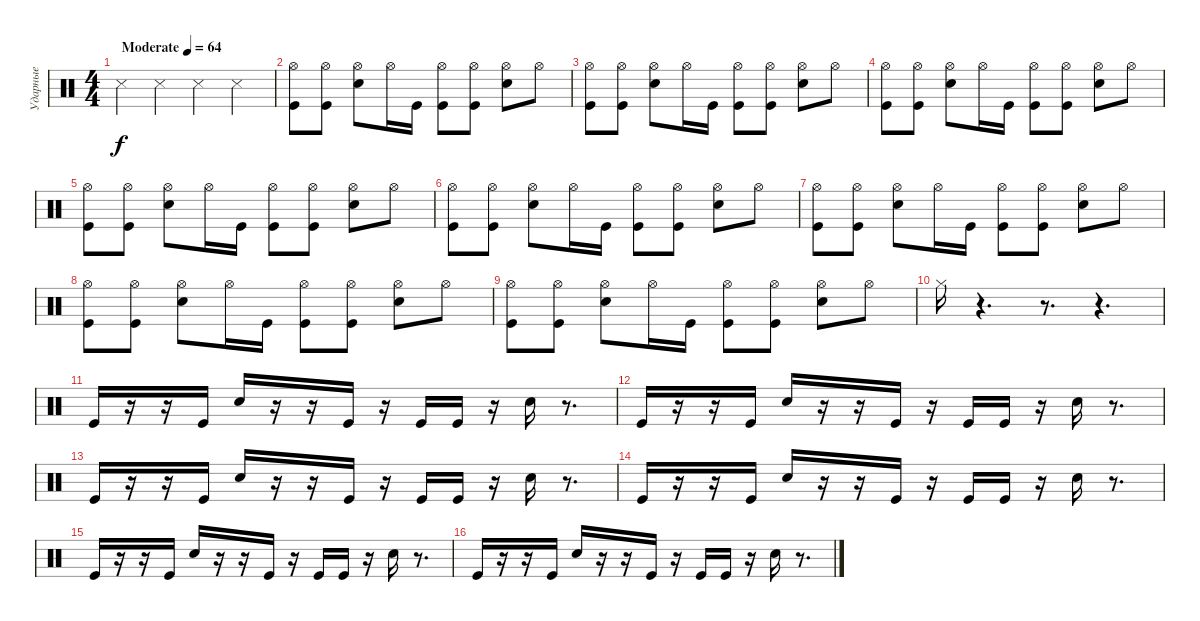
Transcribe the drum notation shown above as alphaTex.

\track ("Ударные" "Ударные") {instrument percussion}
\staff {score}
\articulation defaults
\ts (4 4)
\tempo (64 "Moderate")
\clef neutral
\ks c "Snare (side stick) 3".4{dy f} "Snare (side stick) 3".4 "Snare (side stick) 3".4 "Snare (side stick) 3".4
|
("Hi-Hat (open)" "Kick (hit)").8 ("Hi-Hat (open)" "Kick (hit)").8 ("Snare (hit) 2" "Hi-Hat (open)").8 "Hi-Hat (open)".16 "Kick (hit)".16 ("Hi-Hat (open)" "Kick (hit)").8 ("Hi-Hat (open)" "Kick (hit)").8 ("Hi-Hat (open)" "Snare (hit) 2").8 "Hi-Hat (open)".8 |
("Hi-Hat (open)" "Kick (hit)").8 ("Hi-Hat (open)" "Kick (hit)").8 ("Snare (hit) 2" "Hi-Hat (open)").8 "Hi-Hat (open)".16 "Kick (hit)".16 ("Hi-Hat (open)" "Kick (hit)").8 ("Hi-Hat (open)" "Kick (hit)").8 ("Hi-Hat (open)" "Snare (hit) 2").8 "Hi-Hat (open)".8 |
("Hi-Hat (open)" "Kick (hit)").8 ("Hi-Hat (open)" "Kick (hit)").8 ("Snare (hit) 2" "Hi-Hat (open)").8 "Hi-Hat (open)".16 "Kick (hit)".16 ("Hi-Hat (open)" "Kick (hit)").8 ("Hi-Hat (open)" "Kick (hit)").8 ("Hi-Hat (open)" "Snare (hit) 2").8 "Hi-Hat (open)".8 |
("Hi-Hat (open)" "Kick (hit)").8 ("Hi-Hat (open)" "Kick (hit)").8 ("Snare (hit) 2" "Hi-Hat (open)").8 "Hi-Hat (open)".16 "Kick (hit)".16 ("Hi-Hat (open)" "Kick (hit)").8 ("Hi-Hat (open)" "Kick (hit)").8 ("Hi-Hat (open)" "Snare (hit) 2").8 "Hi-Hat (open)".8 |
("Hi-Hat (open)" "Kick (hit)").8 ("Hi-Hat (open)" "Kick (hit)").8 ("Snare (hit) 2" "Hi-Hat (open)").8 "Hi-Hat (open)".16 "Kick (hit)".16 ("Hi-Hat (open)" "Kick (hit)").8 ("Hi-Hat (open)" "Kick (hit)").8 ("Hi-Hat (open)" "Snare (hit) 2").8 "Hi-Hat (open)".8 |
("Hi-Hat (open)" "Kick (hit)").8 ("Hi-Hat (open)" "Kick (hit)").8 ("Snare (hit) 2" "Hi-Hat (open)").8 "Hi-Hat (open)".16 "Kick (hit)".16 ("Hi-Hat (open)" "Kick (hit)").8 ("Hi-Hat (open)" "Kick (hit)").8 ("Hi-Hat (open)" "Snare (hit) 2").8 "Hi-Hat (open)".8 |
("Hi-Hat (open)" "Kick (hit)").8 ("Hi-Hat (open)" "Kick (hit)").8 ("Snare (hit) 2" "Hi-Hat (open)").8 "Hi-Hat (open)".16 "Kick (hit)".16 ("Hi-Hat (open)" "Kick (hit)").8 ("Hi-Hat (open)" "Kick (hit)").8 ("Hi-Hat (open)" "Snare (hit) 2").8 "Hi-Hat (open)".8 |
("Hi-Hat (open)" "Kick (hit)").8 ("Hi-Hat (open)" "Kick (hit)").8 ("Snare (hit) 2" "Hi-Hat (open)").8 "Hi-Hat (open)".16 "Kick (hit)".16 ("Hi-Hat (open)" "Kick (hit)").8 ("Hi-Hat (open)" "Kick (hit)").8 ("Hi-Hat (open)" "Snare (hit) 2").8 "Hi-Hat (open)".8 |
"Hi-Hat (closed)".16 r.4{d} r.8{d} r.4{d} |
"Kick (hit)".16 r.16 r.16 "Kick (hit)".16 "Snare (hit) 2".16 r.16 r.16 "Kick (hit)".16 r.16 "Kick (hit)".16 "Kick (hit)".16 r.16 "Snare (hit) 2".16 r.8{d} |
"Kick (hit)".16 r.16 r.16 "Kick (hit)".16 "Snare (hit) 2".16 r.16 r.16 "Kick (hit)".16 r.16 "Kick (hit)".16 "Kick (hit)".16 r.16 "Snare (hit) 2".16 r.8{d} |
"Kick (hit)".16 r.16 r.16 "Kick (hit)".16 "Snare (hit) 2".16 r.16 r.16 "Kick (hit)".16 r.16 "Kick (hit)".16 "Kick (hit)".16 r.16 "Snare (hit) 2".16 r.8{d} |
"Kick (hit)".16 r.16 r.16 "Kick (hit)".16 "Snare (hit) 2".16 r.16 r.16 "Kick (hit)".16 r.16 "Kick (hit)".16 "Kick (hit)".16 r.16 "Snare (hit) 2".16 r.8{d} |
"Kick (hit)".16 r.16 r.16 "Kick (hit)".16 "Snare (hit) 2".16 r.16 r.16 "Kick (hit)".16 r.16 "Kick (hit)".16 "Kick (hit)".16 r.16 "Snare (hit) 2".16 r.8{d} |
"Kick (hit)".16 r.16 r.16 "Kick (hit)".16 "Snare (hit) 2".16 r.16 r.16 "Kick (hit)".16 r.16 "Kick (hit)".16 "Kick (hit)".16 r.16 "Snare (hit) 2".16 r.8{d}
